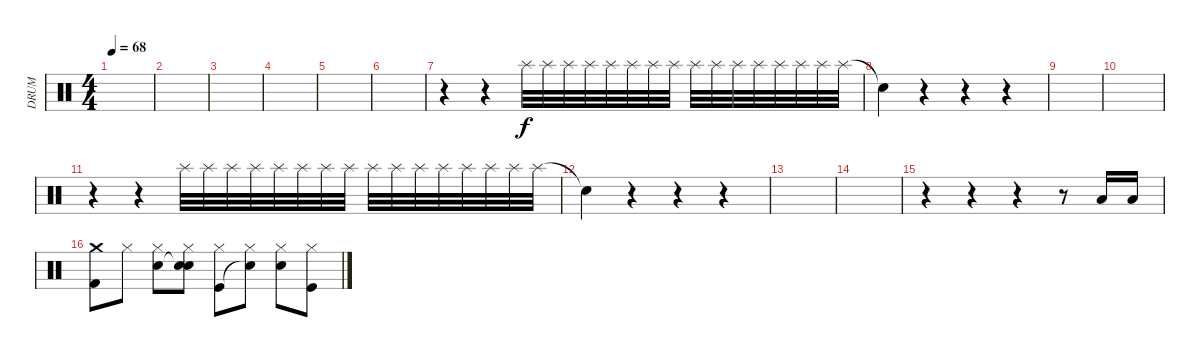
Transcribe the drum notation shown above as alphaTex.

\track ("DRUM" "DRUM") {instrument percussion}
\staff {score}
\articulation defaults
\ts (4 4)
\tempo 68
\clef neutral
\ks c
|
|
|
|
|
|
r.4 r.4 "Splash (hit)".32{volume 6} "Splash (hit)".32 "Splash (hit)".32 "Splash (hit)".32{volume 10} "Splash (hit)".32 "Splash (hit)".32 "Splash (hit)".32 "Splash (hit)".32{volume 16} "Splash (hit)".32 "Splash (hit)".32 "Splash (hit)".32 "Splash (hit)".32 "Splash (hit)".32 "Splash (hit)".32 "Splash (hit)".32 "Splash (hit)".32 |
"Snare (hit)"{t}.4 r.4 r.4 r.4 |
|
|
r.4 r.4 "Splash (hit)".32{volume 6} "Splash (hit)".32 "Splash (hit)".32 "Splash (hit)".32{volume 10} "Splash (hit)".32 "Splash (hit)".32 "Splash (hit)".32 "Splash (hit)".32{volume 16} "Splash (hit)".32 "Splash (hit)".32 "Splash (hit)".32 "Splash (hit)".32 "Splash (hit)".32 "Splash (hit)".32 "Splash (hit)".32 "Splash (hit)".32 |
"Snare (hit)"{t}.4 r.4 r.4 r.4 |
|
|
r.4 r.4 r.4 r.8 "Low Floor Tom (hit)".16 "Low Floor Tom (hit)".16 |
("Kick (hit) 2" "Crash medium (hit)").8 "Hi-Hat (closed)".8 ("Snare (hit) 2" "Hi-Hat (closed)").8 ("Snare (hit)"{t} "Hi-Hat (closed)" "Snare (hit)").8 ("Kick (hit)" "Hi-Hat (closed)").8 ("Snare (hit)"{t} "Hi-Hat (closed)").8 ("Snare (hit) 2" "Hi-Hat (closed)").8 ("Kick (hit)" "Hi-Hat (closed)").8
